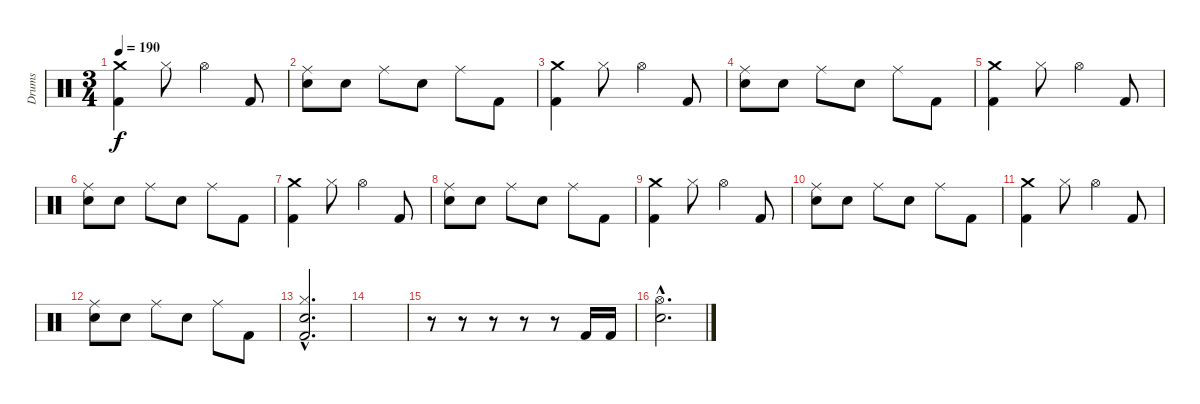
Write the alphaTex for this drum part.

\track ("Drums" "Drums") {instrument percussion}
\staff {score}
\articulation defaults
\ts (3 4)
\tempo 190
\clef neutral
\ks c
("Crash medium (hit)" "Kick (hit) 2").4{dy f} "Hi-Hat (closed)".8 "Hi-Hat (open)".4 "Kick (hit) 2".8 |
("Ride (middle)" "Snare (hit) 2").8 "Snare (hit) 2".8 "Ride (middle)".8 "Snare (hit) 2".8 "Ride (middle)".8 "Kick (hit) 2".8 |
("Crash medium (hit)" "Kick (hit) 2").4 "Hi-Hat (closed)".8 "Hi-Hat (open)".4 "Kick (hit) 2".8 |
("Ride (middle)" "Snare (hit) 2").8 "Snare (hit) 2".8 "Ride (middle)".8 "Snare (hit) 2".8 "Ride (middle)".8 "Kick (hit) 2".8 |
("Crash medium (hit)" "Kick (hit) 2").4 "Hi-Hat (closed)".8 "Hi-Hat (open)".4 "Kick (hit) 2".8 |
("Ride (middle)" "Snare (hit) 2").8 "Snare (hit) 2".8 "Ride (middle)".8 "Snare (hit) 2".8 "Ride (middle)".8 "Kick (hit) 2".8 |
("Crash medium (hit)" "Kick (hit) 2").4 "Hi-Hat (closed)".8 "Hi-Hat (open)".4 "Kick (hit) 2".8 |
("Ride (middle)" "Snare (hit) 2").8 "Snare (hit) 2".8 "Ride (middle)".8 "Snare (hit) 2".8 "Ride (middle)".8 "Kick (hit) 2".8 |
("Crash medium (hit)" "Kick (hit) 2").4 "Hi-Hat (closed)".8 "Hi-Hat (open)".4 "Kick (hit) 2".8 |
("Ride (middle)" "Snare (hit) 2").8 "Snare (hit) 2".8 "Ride (middle)".8 "Snare (hit) 2".8 "Ride (middle)".8 "Kick (hit) 2".8 |
("Crash medium (hit)" "Kick (hit) 2").4 "Hi-Hat (closed)".8 "Hi-Hat (open)".4 "Kick (hit) 2".8 |
("Ride (middle)" "Snare (hit) 2").8 "Snare (hit) 2".8 "Ride (middle)".8 "Snare (hit) 2".8 "Ride (middle)".8 "Kick (hit) 2".8 |
("Hi-Hat (closed)"{hac} "Snare (hit) 2"{hac} "Kick (hit) 2"{hac}).2{d} |
|
r.8 r.8 r.8 r.8 r.8 "Kick (hit) 2".16 "Kick (hit) 2".16 |
("Hi-Hat (open)"{hac} "Snare (hit) 2"{hac}).2{d}
